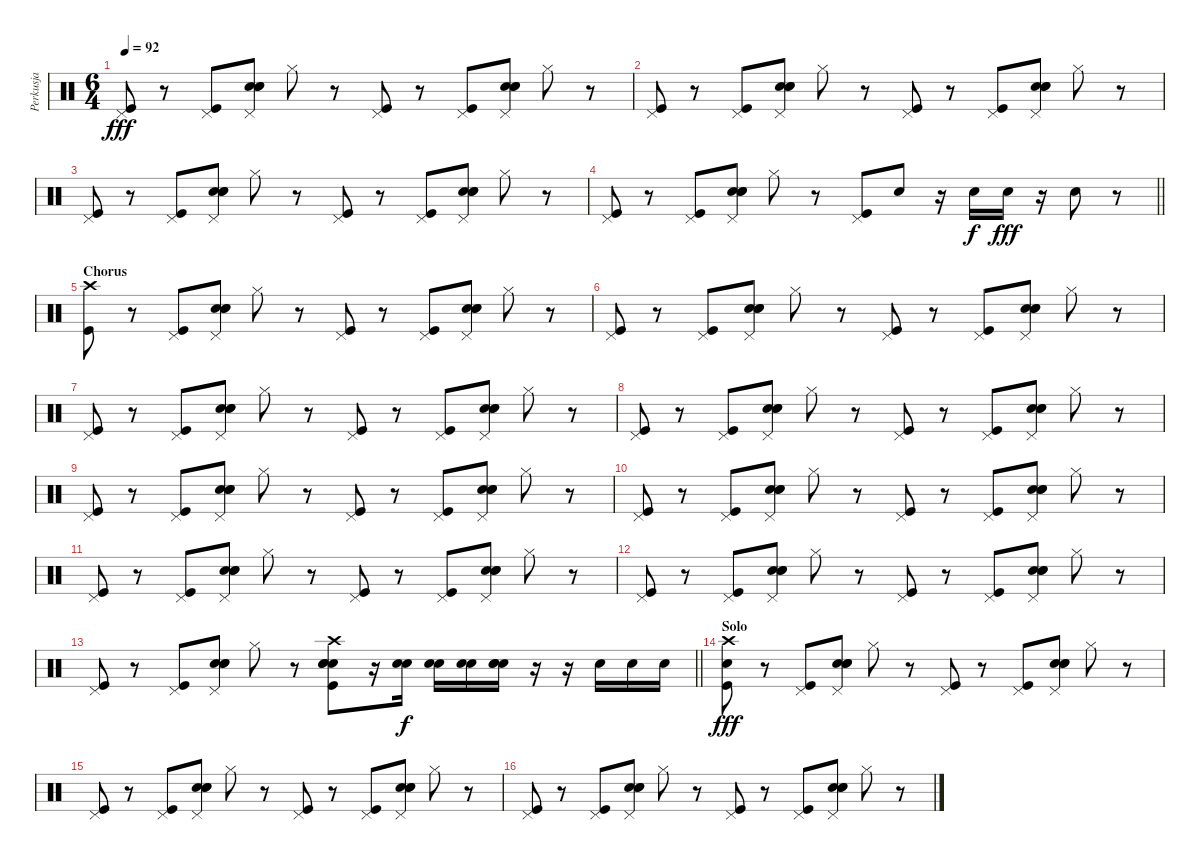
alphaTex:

\track ("Perkusja" "Perkusja") {instrument percussion}
\staff {score}
\articulation defaults
\ts (6 4)
\tempo 92
\clef neutral
\ks c
("Pedal Hi-Hat (hit)" "Kick (hit)").8{dy fff} r.8 ("Pedal Hi-Hat (hit)" "Kick (hit)").8 ("Pedal Hi-Hat (hit)" "Electric Snare (hit)" "Electric Snare (hit)" "Electric Snare (hit)").8 "Hi-Hat (closed)".8 r.8 ("Pedal Hi-Hat (hit)" "Kick (hit)").8 r.8 ("Pedal Hi-Hat (hit)" "Kick (hit)").8 ("Pedal Hi-Hat (hit)" "Electric Snare (hit)" "Electric Snare (hit)" "Electric Snare (hit)").8 "Hi-Hat (closed)".8 r.8 |
("Pedal Hi-Hat (hit)" "Kick (hit)").8 r.8 ("Pedal Hi-Hat (hit)" "Kick (hit)").8 ("Pedal Hi-Hat (hit)" "Electric Snare (hit)" "Electric Snare (hit)" "Electric Snare (hit)").8 "Hi-Hat (closed)".8 r.8 ("Pedal Hi-Hat (hit)" "Kick (hit)").8 r.8 ("Pedal Hi-Hat (hit)" "Kick (hit)").8 ("Pedal Hi-Hat (hit)" "Electric Snare (hit)" "Electric Snare (hit)" "Electric Snare (hit)").8 "Hi-Hat (closed)".8 r.8 |
("Pedal Hi-Hat (hit)" "Kick (hit)").8 r.8 ("Pedal Hi-Hat (hit)" "Kick (hit)").8 ("Pedal Hi-Hat (hit)" "Electric Snare (hit)" "Electric Snare (hit)" "Electric Snare (hit)").8 "Hi-Hat (closed)".8 r.8 ("Pedal Hi-Hat (hit)" "Kick (hit)").8 r.8 ("Pedal Hi-Hat (hit)" "Kick (hit)").8 ("Pedal Hi-Hat (hit)" "Electric Snare (hit)" "Electric Snare (hit)" "Electric Snare (hit)").8 "Hi-Hat (closed)".8 r.8 |
\barLineRight lightlight
("Pedal Hi-Hat (hit)" "Kick (hit)").8 r.8 ("Pedal Hi-Hat (hit)" "Kick (hit)").8 ("Pedal Hi-Hat (hit)" "Electric Snare (hit)" "Electric Snare (hit)" "Electric Snare (hit)").8 "Hi-Hat (closed)".8 r.8 ("Pedal Hi-Hat (hit)" "Kick (hit)").8 "Electric Snare (hit)".8 r.16 "Electric Snare (hit)".16{dy f} "Electric Snare (hit)".16{dy fff} r.16 "Electric Snare (hit)".8 r.8 |
\section ("" "Chorus")
("Crash high (hit)" "Kick (hit)").8 r.8 ("Pedal Hi-Hat (hit)" "Kick (hit)").8 ("Pedal Hi-Hat (hit)" "Electric Snare (hit)" "Electric Snare (hit)" "Electric Snare (hit)").8 "Hi-Hat (closed)".8 r.8 ("Pedal Hi-Hat (hit)" "Kick (hit)").8 r.8 ("Pedal Hi-Hat (hit)" "Kick (hit)").8 ("Pedal Hi-Hat (hit)" "Electric Snare (hit)" "Electric Snare (hit)" "Electric Snare (hit)").8 "Hi-Hat (closed)".8 r.8 |
("Pedal Hi-Hat (hit)" "Kick (hit)").8 r.8 ("Pedal Hi-Hat (hit)" "Kick (hit)").8 ("Pedal Hi-Hat (hit)" "Electric Snare (hit)" "Electric Snare (hit)" "Electric Snare (hit)").8 "Hi-Hat (closed)".8 r.8 ("Pedal Hi-Hat (hit)" "Kick (hit)").8 r.8 ("Pedal Hi-Hat (hit)" "Kick (hit)").8 ("Pedal Hi-Hat (hit)" "Electric Snare (hit)" "Electric Snare (hit)" "Electric Snare (hit)").8 "Hi-Hat (closed)".8 r.8 |
("Pedal Hi-Hat (hit)" "Kick (hit)").8 r.8 ("Pedal Hi-Hat (hit)" "Kick (hit)").8 ("Pedal Hi-Hat (hit)" "Electric Snare (hit)" "Electric Snare (hit)" "Electric Snare (hit)").8 "Hi-Hat (closed)".8 r.8 ("Pedal Hi-Hat (hit)" "Kick (hit)").8 r.8 ("Pedal Hi-Hat (hit)" "Kick (hit)").8 ("Pedal Hi-Hat (hit)" "Electric Snare (hit)" "Electric Snare (hit)" "Electric Snare (hit)").8 "Hi-Hat (closed)".8 r.8 |
("Pedal Hi-Hat (hit)" "Kick (hit)").8 r.8 ("Pedal Hi-Hat (hit)" "Kick (hit)").8 ("Pedal Hi-Hat (hit)" "Electric Snare (hit)" "Electric Snare (hit)" "Electric Snare (hit)").8 "Hi-Hat (closed)".8 r.8 ("Pedal Hi-Hat (hit)" "Kick (hit)").8 r.8 ("Pedal Hi-Hat (hit)" "Kick (hit)").8 ("Pedal Hi-Hat (hit)" "Electric Snare (hit)" "Electric Snare (hit)" "Electric Snare (hit)").8 "Hi-Hat (closed)".8 r.8 |
("Pedal Hi-Hat (hit)" "Kick (hit)").8 r.8 ("Pedal Hi-Hat (hit)" "Kick (hit)").8 ("Pedal Hi-Hat (hit)" "Electric Snare (hit)" "Electric Snare (hit)" "Electric Snare (hit)").8 "Hi-Hat (closed)".8 r.8 ("Pedal Hi-Hat (hit)" "Kick (hit)").8 r.8 ("Pedal Hi-Hat (hit)" "Kick (hit)").8 ("Pedal Hi-Hat (hit)" "Electric Snare (hit)" "Electric Snare (hit)" "Electric Snare (hit)").8 "Hi-Hat (closed)".8 r.8 |
("Pedal Hi-Hat (hit)" "Kick (hit)").8 r.8 ("Pedal Hi-Hat (hit)" "Kick (hit)").8 ("Pedal Hi-Hat (hit)" "Electric Snare (hit)" "Electric Snare (hit)" "Electric Snare (hit)").8 "Hi-Hat (closed)".8 r.8 ("Pedal Hi-Hat (hit)" "Kick (hit)").8 r.8 ("Pedal Hi-Hat (hit)" "Kick (hit)").8 ("Pedal Hi-Hat (hit)" "Electric Snare (hit)" "Electric Snare (hit)" "Electric Snare (hit)").8 "Hi-Hat (closed)".8 r.8 |
("Pedal Hi-Hat (hit)" "Kick (hit)").8 r.8 ("Pedal Hi-Hat (hit)" "Kick (hit)").8 ("Pedal Hi-Hat (hit)" "Electric Snare (hit)" "Electric Snare (hit)" "Electric Snare (hit)").8 "Hi-Hat (closed)".8 r.8 ("Pedal Hi-Hat (hit)" "Kick (hit)").8 r.8 ("Pedal Hi-Hat (hit)" "Kick (hit)").8 ("Pedal Hi-Hat (hit)" "Electric Snare (hit)" "Electric Snare (hit)" "Electric Snare (hit)").8 "Hi-Hat (closed)".8 r.8 |
("Pedal Hi-Hat (hit)" "Kick (hit)").8 r.8 ("Pedal Hi-Hat (hit)" "Kick (hit)").8 ("Pedal Hi-Hat (hit)" "Electric Snare (hit)" "Electric Snare (hit)" "Electric Snare (hit)").8 "Hi-Hat (closed)".8 r.8 ("Pedal Hi-Hat (hit)" "Kick (hit)").8 r.8 ("Pedal Hi-Hat (hit)" "Kick (hit)").8 ("Pedal Hi-Hat (hit)" "Electric Snare (hit)" "Electric Snare (hit)" "Electric Snare (hit)").8 "Hi-Hat (closed)".8 r.8 |
\barLineRight lightlight
("Pedal Hi-Hat (hit)" "Kick (hit)").8 r.8 ("Pedal Hi-Hat (hit)" "Kick (hit)").8 ("Pedal Hi-Hat (hit)" "Electric Snare (hit)" "Electric Snare (hit)" "Electric Snare (hit)").8 "Hi-Hat (closed)".8 r.8 ("Crash high (hit)" "Electric Snare (hit)" "Electric Snare (hit)" "Electric Snare (hit)" "Kick (hit)").8 r.16 ("Electric Snare (hit)" "Electric Snare (hit)").16{dy f} ("Electric Snare (hit)" "Electric Snare (hit)").16 ("Electric Snare (hit)" "Electric Snare (hit)").16 ("Electric Snare (hit)" "Electric Snare (hit)" "Electric Snare (hit)").16 r.16 r.16 "Electric Snare (hit)".16 "Electric Snare (hit)".16 "Electric Snare (hit)".16 |
\section ("" "Solo")
("Crash high (hit)" "Electric Snare (hit)" "Kick (hit)").8{dy fff} r.8 ("Pedal Hi-Hat (hit)" "Kick (hit)").8 ("Pedal Hi-Hat (hit)" "Electric Snare (hit)" "Electric Snare (hit)" "Electric Snare (hit)").8 "Hi-Hat (closed)".8 r.8 ("Pedal Hi-Hat (hit)" "Kick (hit)").8 r.8 ("Pedal Hi-Hat (hit)" "Kick (hit)").8 ("Pedal Hi-Hat (hit)" "Electric Snare (hit)" "Electric Snare (hit)" "Electric Snare (hit)").8 "Hi-Hat (closed)".8 r.8 |
("Pedal Hi-Hat (hit)" "Kick (hit)").8 r.8 ("Pedal Hi-Hat (hit)" "Kick (hit)").8 ("Pedal Hi-Hat (hit)" "Electric Snare (hit)" "Electric Snare (hit)" "Electric Snare (hit)").8 "Hi-Hat (closed)".8 r.8 ("Pedal Hi-Hat (hit)" "Kick (hit)").8 r.8 ("Pedal Hi-Hat (hit)" "Kick (hit)").8 ("Pedal Hi-Hat (hit)" "Electric Snare (hit)" "Electric Snare (hit)" "Electric Snare (hit)").8 "Hi-Hat (closed)".8 r.8 |
("Pedal Hi-Hat (hit)" "Kick (hit)").8 r.8 ("Pedal Hi-Hat (hit)" "Kick (hit)").8 ("Pedal Hi-Hat (hit)" "Electric Snare (hit)" "Electric Snare (hit)" "Electric Snare (hit)").8 "Hi-Hat (closed)".8 r.8 ("Pedal Hi-Hat (hit)" "Kick (hit)").8 r.8 ("Pedal Hi-Hat (hit)" "Kick (hit)").8 ("Pedal Hi-Hat (hit)" "Electric Snare (hit)" "Electric Snare (hit)" "Electric Snare (hit)").8 "Hi-Hat (closed)".8 r.8
